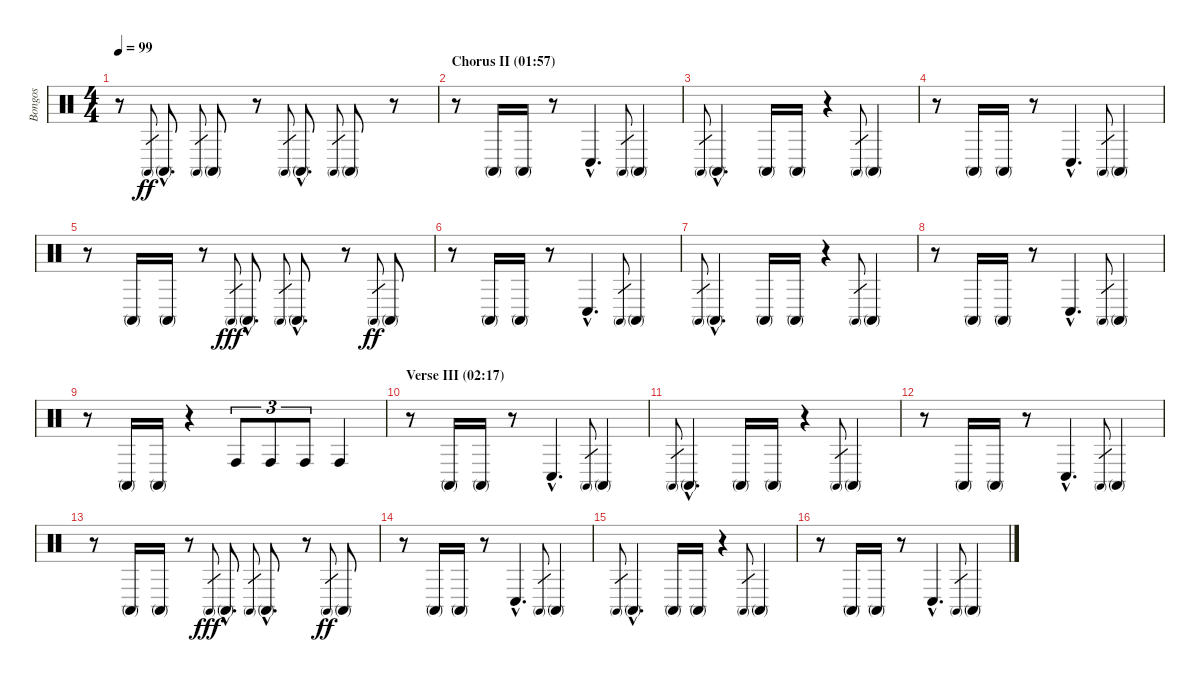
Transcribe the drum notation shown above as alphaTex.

\track ("Bongos" "Bongos") {instrument percussion}
\staff {score}
\articulation defaults
\ts (4 4)
\tempo 99
\clef neutral
\ks c
r.8{dy ff} "Conga high (mute)".8{gr} "Conga high (mute)"{hac}.8{d} "Conga high (mute)".8{gr} "Conga high (mute)".8 r.8 "Conga high (mute)".8{gr} "Conga high (mute)"{hac}.8{d} "Conga high (mute)".8{gr} "Conga high (mute)".8 r.8 |
\section ("" "Chorus II (01:57)")
r.8 "Conga high (mute)".16 "Conga high (mute)".16 r.8 "Conga low (hit)"{hac}.4{d} "Conga high (mute)".8{gr} "Conga high (mute)".4 |
"Conga high (mute)".8{gr} "Conga high (mute)"{hac}.4{d} "Conga high (mute)".16 "Conga high (mute)".16 r.4 "Conga high (mute)".8{gr} "Conga high (mute)".4 |
r.8 "Conga high (mute)".16 "Conga high (mute)".16 r.8 "Conga low (hit)"{hac}.4{d} "Conga high (mute)".8{gr} "Conga high (mute)".4 |
r.8 "Conga high (mute)".16 "Conga high (mute)".16 r.8 "Conga high (mute)".8{gr dy fff} "Conga high (mute)"{hac}.8{d} "Conga high (mute)".8{gr} "Conga high (mute)"{hac}.8{d} r.8 "Conga high (mute)".8{gr dy ff} "Conga high (mute)".8 |
r.8 "Conga high (mute)".16 "Conga high (mute)".16 r.8 "Conga low (hit)"{hac}.4{d} "Conga high (mute)".8{gr} "Conga high (mute)".4 |
"Conga high (mute)".8{gr} "Conga high (mute)"{hac}.4{d} "Conga high (mute)".16 "Conga high (mute)".16 r.4 "Conga high (mute)".8{gr} "Conga high (mute)".4 |
r.8 "Conga high (mute)".16 "Conga high (mute)".16 r.8 "Conga low (hit)"{hac}.4{d} "Conga high (mute)".8{gr} "Conga high (mute)".4 |
r.8 "Conga high (mute)".16 "Conga high (mute)".16 r.4 "Conga high (hit)".8{tu (3 2)} "Conga high (hit)".8{tu (3 2)} "Conga high (hit)".8{tu (3 2)} "Conga high (hit)".4 |
\section ("" "Verse III (02:17)")
r.8 "Conga high (mute)".16 "Conga high (mute)".16 r.8 "Conga low (hit)"{hac}.4{d} "Conga high (mute)".8{gr} "Conga high (mute)".4 |
"Conga high (mute)".8{gr} "Conga high (mute)"{hac}.4{d} "Conga high (mute)".16 "Conga high (mute)".16 r.4 "Conga high (mute)".8{gr} "Conga high (mute)".4 |
r.8 "Conga high (mute)".16 "Conga high (mute)".16 r.8 "Conga low (hit)"{hac}.4{d} "Conga high (mute)".8{gr} "Conga high (mute)".4 |
r.8 "Conga high (mute)".16 "Conga high (mute)".16 r.8 "Conga high (mute)".8{gr dy fff} "Conga high (mute)"{hac}.8{d} "Conga high (mute)".8{gr} "Conga high (mute)"{hac}.8{d} r.8 "Conga high (mute)".8{gr dy ff} "Conga high (mute)".8 |
r.8 "Conga high (mute)".16 "Conga high (mute)".16 r.8 "Conga low (hit)"{hac}.4{d} "Conga high (mute)".8{gr} "Conga high (mute)".4 |
"Conga high (mute)".8{gr} "Conga high (mute)"{hac}.4{d} "Conga high (mute)".16 "Conga high (mute)".16 r.4 "Conga high (mute)".8{gr} "Conga high (mute)".4 |
r.8 "Conga high (mute)".16 "Conga high (mute)".16 r.8 "Conga low (hit)"{hac}.4{d} "Conga high (mute)".8{gr} "Conga high (mute)".4
